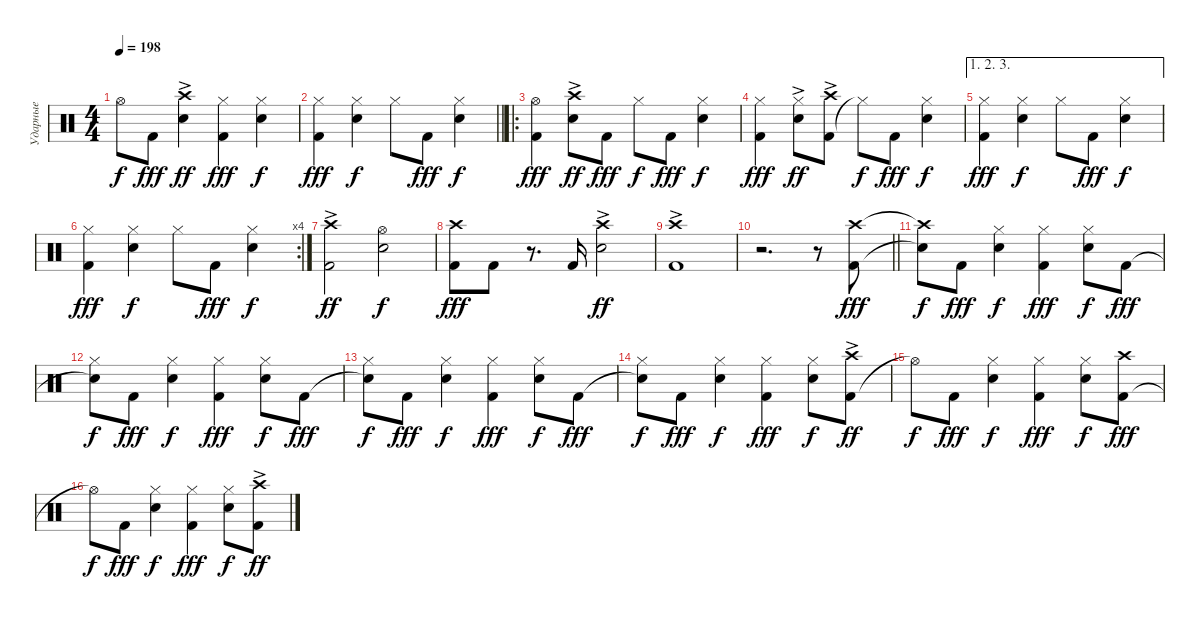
\track ("Ударные" "Ударные") {instrument percussion}
\staff {score}
\articulation defaults
\ts (4 4)
\tempo 198
\clef neutral
\ks c "Hi-Hat (open)"{t}.8{dy f} "Kick (hit) 2".8{dy fff}
("Snare (hit) 2" "Crash high (hit)"{ac}).4{dy ff} ("Kick (hit) 2" "Hi-Hat (closed)").4{dy fff} ("Snare (hit) 2" "Hi-Hat (closed)").4{dy f} |
\barLineRight lightlight
("Kick (hit) 2" "Hi-Hat (closed)").4{dy fff} ("Snare (hit) 2" "Hi-Hat (closed)").4{dy f} "Hi-Hat (closed)".8 "Kick (hit) 2".8{dy fff} ("Snare (hit) 2" "Hi-Hat (closed)").4{dy f} |
\ro
("Kick (hit) 2" "Hi-Hat (open)").4{dy fff} ("Snare (hit) 2" "Crash high (hit)"{ac}).8{dy ff} "Kick (hit) 2".8{dy fff} "Hi-Hat (closed)".8{dy f} "Kick (hit) 2".8{dy fff} ("Snare (hit) 2" "Hi-Hat (closed)").4{dy f} |
("Kick (hit) 2" "Hi-Hat (closed)").4{dy fff} ("Snare (hit) 2" "Hi-Hat (closed)"{ac}).8{dy ff} ("Kick (hit) 2" "Crash high (hit)"{ac}).8 "Hi-Hat (closed)"{t}.8{dy f} "Kick (hit) 2".8{dy fff} ("Snare (hit) 2" "Hi-Hat (closed)").4{dy f} |
\ae (1 2 3)
("Kick (hit) 2" "Hi-Hat (closed)").4{dy fff} ("Snare (hit) 2" "Hi-Hat (closed)").4{dy f} "Hi-Hat (closed)".8 "Kick (hit) 2".8{dy fff} ("Snare (hit) 2" "Hi-Hat (closed)").4{dy f} |
\rc 4
("Kick (hit) 2" "Hi-Hat (closed)").4{dy fff} ("Snare (hit) 2" "Hi-Hat (closed)").4{dy f} "Hi-Hat (closed)".8 "Kick (hit) 2".8{dy fff} ("Snare (hit) 2" "Hi-Hat (closed)").4{dy f} |
("Kick (hit) 2" "Crash high (hit)"{ac}).2{dy ff} ("Snare (hit) 2" "Hi-Hat (open)").2{dy f} |
("Kick (hit) 2" "Crash high (hit)").8{dy fff} "Kick (hit) 2".8 r.8{d} "Kick (hit) 2".16 ("Snare (hit) 2" "Crash high (hit)"{ac}).2{dy ff} |
("Kick (hit) 2" "Crash high (hit)"{ac}).1 |
\barLineRight lightlight
r.2{d} r.8 ("Kick (hit) 2" "Crash high (hit)").8{dy fff} |
("Snare (hit)"{t} "Crash high (hit)"{t}).8{dy f} "Kick (hit) 2".8{dy fff} ("Snare (hit) 2" "Hi-Hat (closed)").4{dy f} ("Kick (hit) 2" "Hi-Hat (closed)").4{dy fff} ("Snare (hit) 2" "Hi-Hat (closed)").8{dy f} "Kick (hit) 2".8{dy fff} |
("Snare (hit)"{t} "Hi-Hat (closed)").8{dy f} "Kick (hit) 2".8{dy fff} ("Snare (hit) 2" "Hi-Hat (closed)").4{dy f} ("Kick (hit) 2" "Hi-Hat (closed)").4{dy fff} ("Snare (hit) 2" "Hi-Hat (closed)").8{dy f} "Kick (hit) 2".8{dy fff} |
("Snare (hit)"{t} "Hi-Hat (closed)").8{dy f} "Kick (hit) 2".8{dy fff} ("Snare (hit) 2" "Hi-Hat (closed)").4{dy f} ("Kick (hit) 2" "Hi-Hat (closed)").4{dy fff} ("Snare (hit) 2" "Hi-Hat (closed)").8{dy f} "Kick (hit) 2".8{dy fff} |
("Snare (hit)"{t} "Hi-Hat (closed)").8{dy f} "Kick (hit) 2".8{dy fff} ("Snare (hit) 2" "Hi-Hat (closed)").4{dy f} ("Kick (hit) 2" "Hi-Hat (closed)").4{dy fff} ("Snare (hit) 2" "Hi-Hat (closed)").8{dy f} ("Kick (hit) 2" "Crash high (hit)"{ac}).8{dy ff} |
"Hi-Hat (open)"{t}.8{dy f} "Kick (hit) 2".8{dy fff} ("Snare (hit) 2" "Hi-Hat (closed)").4{dy f} ("Kick (hit) 2" "Hi-Hat (closed)").4{dy fff} ("Snare (hit) 2" "Hi-Hat (closed)").8{dy f} ("Kick (hit) 2" "Crash high (hit)").8{dy fff} |
"Hi-Hat (open)"{t}.8{dy f} "Kick (hit) 2".8{dy fff} ("Snare (hit) 2" "Hi-Hat (closed)").4{dy f} ("Kick (hit) 2" "Hi-Hat (closed)").4{dy fff} ("Snare (hit) 2" "Hi-Hat (closed)").8{dy f} ("Kick (hit) 2" "Crash high (hit)"{ac}).8{dy ff}
